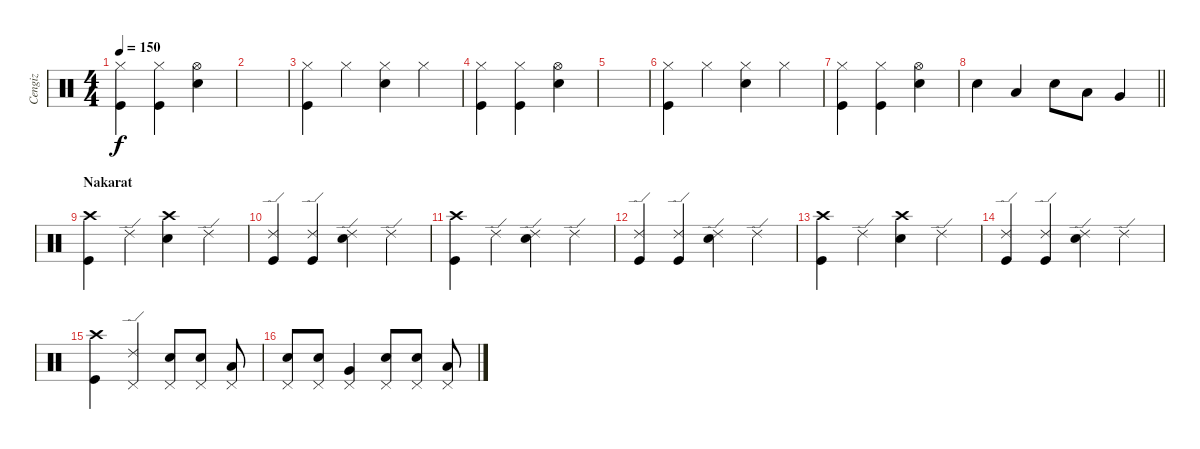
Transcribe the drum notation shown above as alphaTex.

\track ("Cengiz" "Cengiz") {instrument percussion}
\staff {score}
\articulation defaults
\ts (4 4)
\tempo 150
\clef neutral
\ks c
("Hi-Hat (closed)" "Kick (hit)").4{dy f} ("Hi-Hat (closed)" "Kick (hit)").4 ("Hi-Hat (open)" "Snare (hit) 2").4 |
|
("Hi-Hat (closed)" "Kick (hit)").4 "Hi-Hat (closed)".4 ("Hi-Hat (closed)" "Snare (hit) 2").4 "Hi-Hat (closed)".4 |
("Hi-Hat (closed)" "Kick (hit)").4 ("Hi-Hat (closed)" "Kick (hit)").4 ("Hi-Hat (open)" "Snare (hit) 2").4 |
|
("Hi-Hat (closed)" "Kick (hit)").4 "Hi-Hat (closed)".4 ("Hi-Hat (closed)" "Snare (hit) 2").4 "Hi-Hat (closed)".4 |
("Hi-Hat (closed)" "Kick (hit)").4 ("Hi-Hat (closed)" "Kick (hit)").4 ("Hi-Hat (open)" "Snare (hit) 2").4 |
\barLineRight lightlight "Snare (hit) 2".4 "Low Tom (hit)".4 "Snare (hit) 2".8 "Low Tom (hit)".8 "Very Low Tom (hit)".4
|
\section ("" "Nakarat")
("Crash high (hit)" "Kick (hit)").4 "Ride (edge) 2".4 ("Crash high (hit)" "Snare (hit) 2").4 "Ride (edge) 2".4 |
("Ride (edge) 2" "Kick (hit)").4 ("Ride (edge) 2" "Kick (hit)").4 ("Ride (edge) 2" "Snare (hit) 2").4 "Ride (edge) 2".4 |
("Crash high (hit)" "Kick (hit)").4 "Ride (edge) 2".4 ("Ride (edge) 2" "Snare (hit) 2").4 "Ride (edge) 2".4 |
("Ride (edge) 2" "Kick (hit)").4 ("Ride (edge) 2" "Kick (hit)").4 ("Ride (edge) 2" "Snare (hit) 2").4 "Ride (edge) 2".4 |
("Crash high (hit)" "Kick (hit)").4 "Ride (edge) 2".4 ("Crash high (hit)" "Snare (hit) 2").4 "Ride (edge) 2".4 |
("Ride (edge) 2" "Kick (hit)").4 ("Ride (edge) 2" "Kick (hit)").4 ("Ride (edge) 2" "Snare (hit) 2").4 "Ride (edge) 2".4 |
("Crash high (hit)" "Kick (hit)").4 ("Ride (edge) 2" "Pedal Hi-Hat (hit)").4 ("Snare (hit) 2" "Pedal Hi-Hat (hit)").8 ("Snare (hit) 2" "Pedal Hi-Hat (hit)").8 ("Low Tom (hit)" "Pedal Hi-Hat (hit)").8 |
("Snare (hit) 2" "Pedal Hi-Hat (hit)").8 ("Snare (hit) 2" "Pedal Hi-Hat (hit)").8 ("Very Low Tom (hit)" "Pedal Hi-Hat (hit)").4 ("Snare (hit) 2" "Pedal Hi-Hat (hit)").8 ("Snare (hit) 2" "Pedal Hi-Hat (hit)").8 ("Low Floor Tom (hit)" "Pedal Hi-Hat (hit)").8
